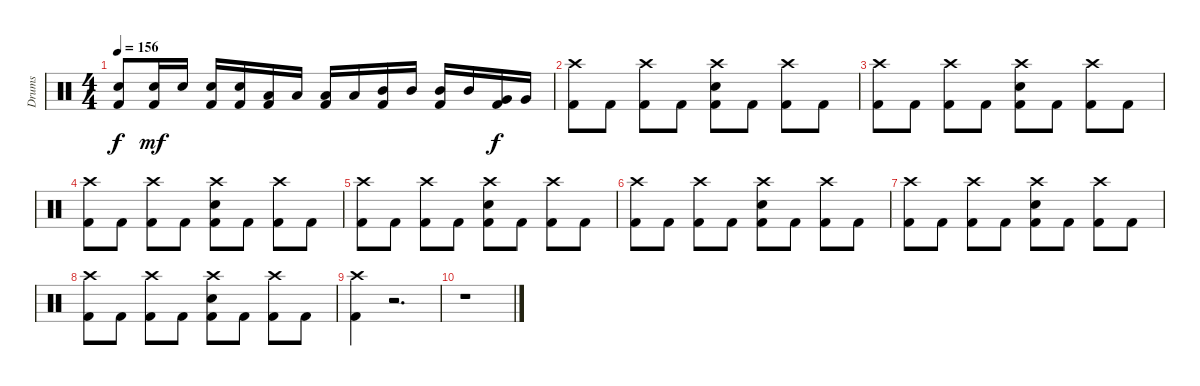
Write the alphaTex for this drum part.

\track ("Drums" "Drums") {instrument percussion}
\staff {score}
\articulation defaults
\ts (4 4)
\tempo 156
\clef neutral
\ks c
("Electric Snare (hit)" "Kick (hit) 2").8{dy f} ("Electric Snare (hit)" "Kick (hit) 2").16{dy mf} "Electric Snare (hit)".16 ("Electric Snare (hit)" "Kick (hit) 2").16 ("Electric Snare (hit)" "Kick (hit) 2").16 ("Low Tom (hit)" "Kick (hit) 2").16 "Low Tom (hit)".16 ("Low Tom (hit)" "Kick (hit) 2").16 "Low Tom (hit)".16 ("Mid Tom (hit)" "Kick (hit) 2").16 "Mid Tom (hit)".16 ("Mid Tom (hit)" "Kick (hit) 2").16 "Mid Tom (hit)".16 ("Very Low Tom (hit)" "Kick (hit) 2").16{dy f} "Very Low Tom (hit)".16 |
("Crash high (hit)" "Kick (hit) 2").8 "Kick (hit) 2".8 ("Crash high (hit)" "Kick (hit) 2").8 "Kick (hit) 2".8 ("Crash high (hit)" "Electric Snare (hit)" "Kick (hit) 2").8 "Kick (hit) 2".8 ("Crash high (hit)" "Kick (hit) 2").8 "Kick (hit) 2".8 |
("Crash high (hit)" "Kick (hit) 2").8 "Kick (hit) 2".8 ("Crash high (hit)" "Kick (hit) 2").8 "Kick (hit) 2".8 ("Crash high (hit)" "Electric Snare (hit)" "Kick (hit) 2").8 "Kick (hit) 2".8 ("Crash high (hit)" "Kick (hit) 2").8 "Kick (hit) 2".8 |
("Crash high (hit)" "Kick (hit) 2").8 "Kick (hit) 2".8 ("Crash high (hit)" "Kick (hit) 2").8 "Kick (hit) 2".8 ("Crash high (hit)" "Electric Snare (hit)" "Kick (hit) 2").8 "Kick (hit) 2".8 ("Crash high (hit)" "Kick (hit) 2").8 "Kick (hit) 2".8 |
("Crash high (hit)" "Kick (hit) 2").8 "Kick (hit) 2".8 ("Crash high (hit)" "Kick (hit) 2").8 "Kick (hit) 2".8 ("Crash high (hit)" "Electric Snare (hit)" "Kick (hit) 2").8 "Kick (hit) 2".8 ("Crash high (hit)" "Kick (hit) 2").8 "Kick (hit) 2".8 |
("Crash high (hit)" "Kick (hit) 2").8 "Kick (hit) 2".8 ("Crash high (hit)" "Kick (hit) 2").8 "Kick (hit) 2".8 ("Crash high (hit)" "Electric Snare (hit)" "Kick (hit) 2").8 "Kick (hit) 2".8 ("Crash high (hit)" "Kick (hit) 2").8 "Kick (hit) 2".8 |
("Crash high (hit)" "Kick (hit) 2").8 "Kick (hit) 2".8 ("Crash high (hit)" "Kick (hit) 2").8 "Kick (hit) 2".8 ("Crash high (hit)" "Electric Snare (hit)" "Kick (hit) 2").8 "Kick (hit) 2".8 ("Crash high (hit)" "Kick (hit) 2").8 "Kick (hit) 2".8 |
("Crash high (hit)" "Kick (hit) 2").8 "Kick (hit) 2".8 ("Crash high (hit)" "Kick (hit) 2").8 "Kick (hit) 2".8 ("Crash high (hit)" "Electric Snare (hit)" "Kick (hit) 2").8 "Kick (hit) 2".8 ("Crash high (hit)" "Kick (hit) 2").8 "Kick (hit) 2".8 |
("Crash high (hit)" "Kick (hit) 2").4 r.2{d} |
r.1
